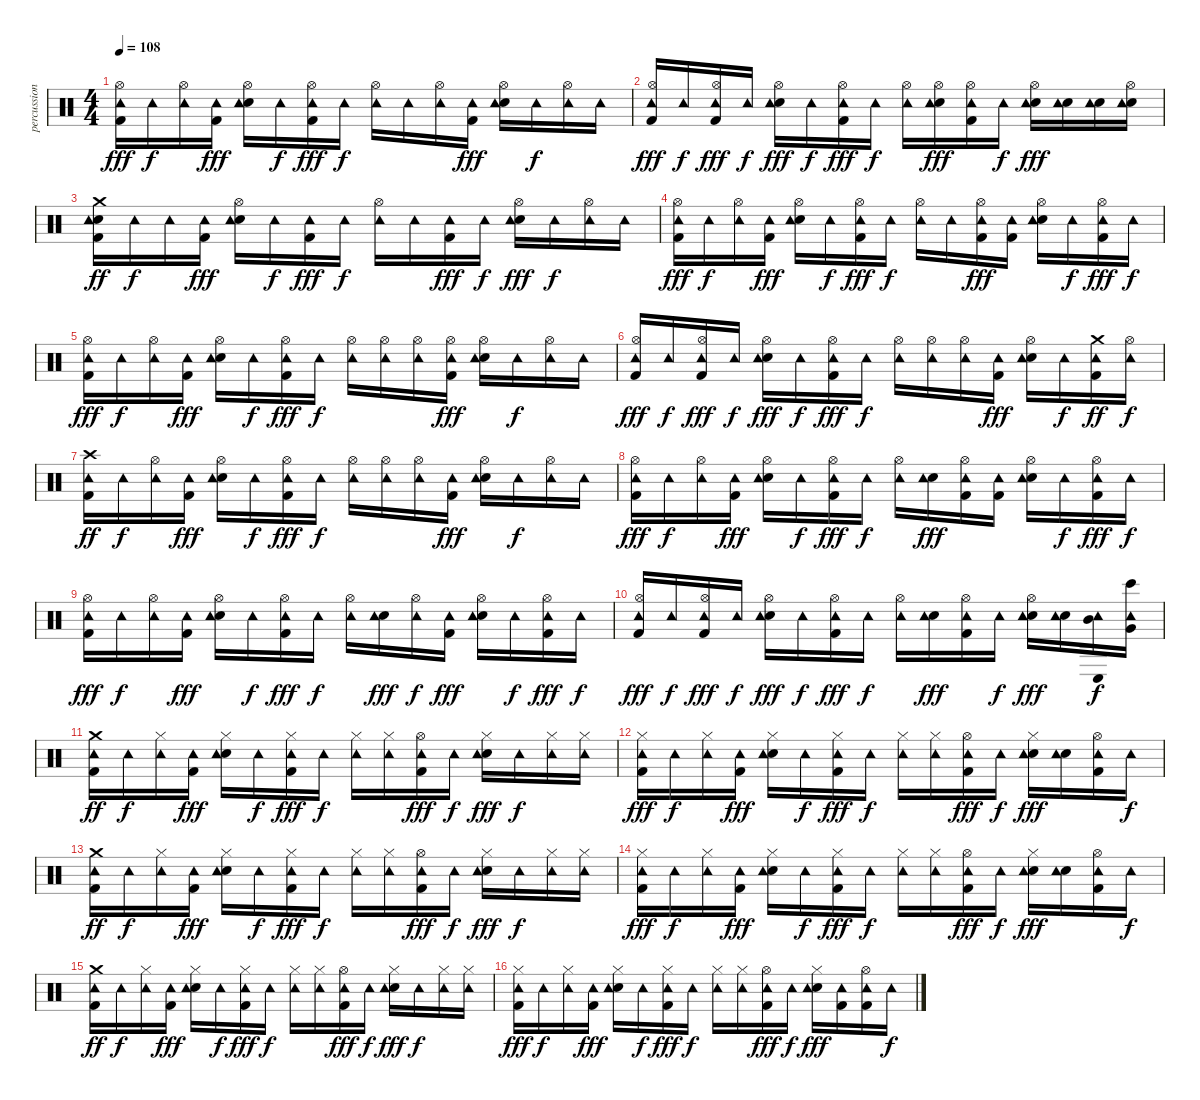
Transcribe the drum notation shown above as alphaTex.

\track ("percussion" "percussion") {instrument percussion}
\staff {score}
\articulation defaults
\ts (4 4)
\tempo 108
\clef neutral
\ks c
("Kick (hit) 2" "Hi-Hat (open)" "Tambourine (hit)").16{dy fff} "Tambourine (hit)".16{dy f} ("Hi-Hat (open)" "Tambourine (hit)").16 ("Kick (hit) 2" "Tambourine (hit)").16{dy fff} ("Hi-Hat (open)" "Electric Snare (hit)" "Tambourine (hit)").16 "Tambourine (hit)".16{dy f} ("Hi-Hat (open)" "Kick (hit) 2" "Tambourine (hit)").16{dy fff} "Tambourine (hit)".16{dy f} ("Hi-Hat (open)" "Tambourine (hit)").16 "Tambourine (hit)".16 ("Hi-Hat (open)" "Tambourine (hit)").16 ("Kick (hit) 2" "Tambourine (hit)").16{dy fff} ("Hi-Hat (open)" "Electric Snare (hit)" "Tambourine (hit)").16 "Tambourine (hit)".16{dy f} ("Hi-Hat (open)" "Tambourine (hit)").16 "Tambourine (hit)".16 |
("Hi-Hat (open)" "Kick (hit) 2" "Tambourine (hit)").16{dy fff} "Tambourine (hit)".16{dy f} ("Kick (hit) 2" "Hi-Hat (open)" "Tambourine (hit)").16{dy fff} "Tambourine (hit)".16{dy f} ("Hi-Hat (open)" "Electric Snare (hit)" "Tambourine (hit)").16{dy fff} "Tambourine (hit)".16{dy f} ("Hi-Hat (open)" "Kick (hit) 2" "Tambourine (hit)").16{dy fff} "Tambourine (hit)".16{dy f} ("Hi-Hat (open)" "Tambourine (hit)").16 ("Electric Snare (hit)" "Hi-Hat (open)" "Tambourine (hit)").16{dy fff} ("Kick (hit) 2" "Hi-Hat (open)" "Tambourine (hit)").16 "Tambourine (hit)".16{dy f} ("Hi-Hat (open)" "Electric Snare (hit)" "Tambourine (hit)").16{dy fff} ("Electric Snare (hit)" "Tambourine (hit)").16 ("Electric Snare (hit)" "Tambourine (hit)").16 ("Electric Snare (hit)" "Hi-Hat (open)" "Tambourine (hit)").16 |
("Kick (hit) 2" "Electric Snare (hit)" "Crash medium (hit)" "Tambourine (hit)").16{dy ff} "Tambourine (hit)".16{dy f} "Tambourine (hit)".16 ("Kick (hit) 2" "Tambourine (hit)").16{dy fff} ("Hi-Hat (open)" "Electric Snare (hit)" "Tambourine (hit)").16 "Tambourine (hit)".16{dy f} ("Kick (hit) 2" "Tambourine (hit)").16{dy fff} "Tambourine (hit)".16{dy f} ("Hi-Hat (open)" "Tambourine (hit)").16 "Tambourine (hit)".16 ("Kick (hit) 2" "Tambourine (hit)").16{dy fff} "Tambourine (hit)".16{dy f} ("Hi-Hat (open)" "Electric Snare (hit)" "Tambourine (hit)").16{dy fff} "Tambourine (hit)".16{dy f} ("Hi-Hat (open)" "Tambourine (hit)").16 "Tambourine (hit)".16 |
("Hi-Hat (open)" "Kick (hit) 2" "Tambourine (hit)").16{dy fff} "Tambourine (hit)".16{dy f} ("Hi-Hat (open)" "Tambourine (hit)").16 ("Kick (hit) 2" "Tambourine (hit)").16{dy fff} ("Hi-Hat (open)" "Electric Snare (hit)" "Tambourine (hit)").16 "Tambourine (hit)".16{dy f} ("Hi-Hat (open)" "Kick (hit) 2" "Tambourine (hit)").16{dy fff} "Tambourine (hit)".16{dy f} ("Hi-Hat (open)" "Tambourine (hit)").16 "Tambourine (hit)".16 ("Kick (hit) 2" "Hi-Hat (open)" "Tambourine (hit)").16{dy fff} ("Kick (hit) 2" "Tambourine (hit)").16 ("Hi-Hat (open)" "Electric Snare (hit)" "Tambourine (hit)").16 "Tambourine (hit)".16{dy f} ("Kick (hit) 2" "Hi-Hat (open)" "Tambourine (hit)").16{dy fff} "Tambourine (hit)".16{dy f} |
("Kick (hit) 2" "Hi-Hat (open)" "Tambourine (hit)").16{dy fff} "Tambourine (hit)".16{dy f} ("Hi-Hat (open)" "Tambourine (hit)").16 ("Kick (hit) 2" "Tambourine (hit)").16{dy fff} ("Hi-Hat (open)" "Electric Snare (hit)" "Tambourine (hit)").16 "Tambourine (hit)".16{dy f} ("Hi-Hat (open)" "Kick (hit) 2" "Tambourine (hit)").16{dy fff} "Tambourine (hit)".16{dy f} ("Hi-Hat (open)" "Tambourine (hit)").16 ("Hi-Hat (open)" "Tambourine (hit)").16 ("Hi-Hat (open)" "Tambourine (hit)").16 ("Kick (hit) 2" "Hi-Hat (open)" "Tambourine (hit)").16{dy fff} ("Hi-Hat (open)" "Electric Snare (hit)" "Tambourine (hit)").16 "Tambourine (hit)".16{dy f} ("Hi-Hat (open)" "Tambourine (hit)").16 "Tambourine (hit)".16 |
("Hi-Hat (open)" "Kick (hit) 2" "Tambourine (hit)").16{dy fff} "Tambourine (hit)".16{dy f} ("Kick (hit) 2" "Hi-Hat (open)" "Tambourine (hit)").16{dy fff} "Tambourine (hit)".16{dy f} ("Hi-Hat (open)" "Electric Snare (hit)" "Tambourine (hit)").16{dy fff} "Tambourine (hit)".16{dy f} ("Hi-Hat (open)" "Kick (hit) 2" "Tambourine (hit)").16{dy fff} "Tambourine (hit)".16{dy f} ("Hi-Hat (open)" "Tambourine (hit)").16 ("Hi-Hat (open)" "Tambourine (hit)").16 ("Hi-Hat (open)" "Tambourine (hit)").16 ("Kick (hit) 2" "Tambourine (hit)").16{dy fff} ("Hi-Hat (open)" "Electric Snare (hit)" "Tambourine (hit)").16 "Tambourine (hit)".16{dy f} ("Kick (hit) 2" "Crash medium (hit)" "Tambourine (hit)").16{dy ff} ("Hi-Hat (open)" "Tambourine (hit)").16{dy f} |
("Kick (hit) 2" "Crash high (hit)" "Tambourine (hit)").16{dy ff} "Tambourine (hit)".16{dy f} ("Hi-Hat (open)" "Tambourine (hit)").16 ("Kick (hit) 2" "Tambourine (hit)").16{dy fff} ("Hi-Hat (open)" "Electric Snare (hit)" "Tambourine (hit)").16 "Tambourine (hit)".16{dy f} ("Hi-Hat (open)" "Kick (hit) 2" "Tambourine (hit)").16{dy fff} "Tambourine (hit)".16{dy f} ("Hi-Hat (open)" "Tambourine (hit)").16 ("Hi-Hat (open)" "Tambourine (hit)").16 ("Hi-Hat (open)" "Tambourine (hit)").16 ("Kick (hit) 2" "Tambourine (hit)").16{dy fff} ("Hi-Hat (open)" "Electric Snare (hit)" "Tambourine (hit)").16 "Tambourine (hit)".16{dy f} ("Hi-Hat (open)" "Tambourine (hit)").16 "Tambourine (hit)".16 |
("Hi-Hat (open)" "Kick (hit) 2" "Tambourine (hit)").16{dy fff} "Tambourine (hit)".16{dy f} ("Hi-Hat (open)" "Tambourine (hit)").16 ("Kick (hit) 2" "Tambourine (hit)").16{dy fff} ("Hi-Hat (open)" "Electric Snare (hit)" "Tambourine (hit)").16 "Tambourine (hit)".16{dy f} ("Hi-Hat (open)" "Kick (hit) 2" "Tambourine (hit)").16{dy fff} "Tambourine (hit)".16{dy f} ("Hi-Hat (open)" "Tambourine (hit)").16 ("Electric Snare (hit)" "Tambourine (hit)").16{dy fff} ("Kick (hit) 2" "Hi-Hat (open)" "Tambourine (hit)").16 ("Kick (hit) 2" "Tambourine (hit)").16 ("Hi-Hat (open)" "Electric Snare (hit)" "Tambourine (hit)").16 "Tambourine (hit)".16{dy f} ("Kick (hit) 2" "Hi-Hat (open)" "Tambourine (hit)").16{dy fff} "Tambourine (hit)".16{dy f} |
("Kick (hit) 2" "Hi-Hat (open)" "Tambourine (hit)").16{dy fff} "Tambourine (hit)".16{dy f} ("Hi-Hat (open)" "Tambourine (hit)").16 ("Kick (hit) 2" "Tambourine (hit)").16{dy fff} ("Hi-Hat (open)" "Electric Snare (hit)" "Tambourine (hit)").16 "Tambourine (hit)".16{dy f} ("Hi-Hat (open)" "Kick (hit) 2" "Tambourine (hit)").16{dy fff} "Tambourine (hit)".16{dy f} ("Hi-Hat (open)" "Tambourine (hit)").16 ("Electric Snare (hit)" "Tambourine (hit)").16{dy fff} ("Hi-Hat (open)" "Tambourine (hit)").16{dy f} ("Kick (hit) 2" "Tambourine (hit)").16{dy fff} ("Hi-Hat (open)" "Electric Snare (hit)" "Tambourine (hit)").16 "Tambourine (hit)".16{dy f} ("Kick (hit) 2" "Hi-Hat (open)" "Tambourine (hit)").16{dy fff} "Tambourine (hit)".16{dy f} |
("Hi-Hat (open)" "Kick (hit) 2" "Tambourine (hit)").16{dy fff} "Tambourine (hit)".16{dy f} ("Kick (hit) 2" "Hi-Hat (open)" "Tambourine (hit)").16{dy fff} "Tambourine (hit)".16{dy f} ("Hi-Hat (open)" "Electric Snare (hit)" "Tambourine (hit)").16{dy fff} "Tambourine (hit)".16{dy f} ("Hi-Hat (open)" "Kick (hit) 2" "Tambourine (hit)").16{dy fff} "Tambourine (hit)".16{dy f} ("Hi-Hat (open)" "Tambourine (hit)").16 ("Electric Snare (hit)" "Tambourine (hit)").16{dy fff} ("Kick (hit) 2" "Hi-Hat (open)" "Tambourine (hit)").16 "Tambourine (hit)".16{dy f} ("Hi-Hat (open)" "Electric Snare (hit)" "Tambourine (hit)").16{dy fff} ("Electric Snare (hit)" "Tambourine (hit)").16 ("Tambourine (hit)" "Conga low (hit)" "Mid Tom (hit)").16{dy f} ("Tambourine (hit)" "Bongo High (hit)" "Very Low Tom (hit)").16 |
("Kick (hit) 2" "Crash medium (hit)" "Tambourine (hit)").16{dy ff} "Tambourine (hit)".16{dy f} ("Hi-Hat (closed)" "Tambourine (hit)").16 ("Kick (hit) 2" "Tambourine (hit)").16{dy fff} ("Hi-Hat (closed)" "Electric Snare (hit)" "Tambourine (hit)").16 "Tambourine (hit)".16{dy f} ("Hi-Hat (closed)" "Kick (hit) 2" "Tambourine (hit)").16{dy fff} "Tambourine (hit)".16{dy f} ("Hi-Hat (closed)" "Tambourine (hit)").16 ("Hi-Hat (closed)" "Tambourine (hit)").16 ("Kick (hit) 2" "Hi-Hat (open)" "Tambourine (hit)").16{dy fff} "Tambourine (hit)".16{dy f} ("Hi-Hat (closed)" "Electric Snare (hit)" "Tambourine (hit)").16{dy fff} "Tambourine (hit)".16{dy f} ("Hi-Hat (closed)" "Tambourine (hit)").16 ("Hi-Hat (closed)" "Tambourine (hit)").16 |
("Hi-Hat (closed)" "Kick (hit) 2" "Tambourine (hit)").16{dy fff} "Tambourine (hit)".16{dy f} ("Hi-Hat (closed)" "Tambourine (hit)").16 ("Kick (hit) 2" "Tambourine (hit)").16{dy fff} ("Hi-Hat (closed)" "Electric Snare (hit)" "Tambourine (hit)").16 "Tambourine (hit)".16{dy f} ("Hi-Hat (closed)" "Kick (hit) 2" "Tambourine (hit)").16{dy fff} "Tambourine (hit)".16{dy f} ("Hi-Hat (closed)" "Tambourine (hit)").16 ("Hi-Hat (closed)" "Tambourine (hit)").16 ("Kick (hit) 2" "Hi-Hat (open)" "Tambourine (hit)").16{dy fff} "Tambourine (hit)".16{dy f} ("Hi-Hat (closed)" "Electric Snare (hit)" "Tambourine (hit)").16{dy fff} ("Electric Snare (hit)" "Tambourine (hit)").16 ("Kick (hit) 2" "Hi-Hat (open)" "Tambourine (hit)").16 "Tambourine (hit)".16{dy f} |
("Kick (hit) 2" "Crash medium (hit)" "Tambourine (hit)").16{dy ff} "Tambourine (hit)".16{dy f} ("Hi-Hat (closed)" "Tambourine (hit)").16 ("Kick (hit) 2" "Tambourine (hit)").16{dy fff} ("Hi-Hat (closed)" "Electric Snare (hit)" "Tambourine (hit)").16 "Tambourine (hit)".16{dy f} ("Hi-Hat (closed)" "Kick (hit) 2" "Tambourine (hit)").16{dy fff} "Tambourine (hit)".16{dy f} ("Hi-Hat (closed)" "Tambourine (hit)").16 ("Hi-Hat (closed)" "Tambourine (hit)").16 ("Kick (hit) 2" "Hi-Hat (open)" "Tambourine (hit)").16{dy fff} "Tambourine (hit)".16{dy f} ("Hi-Hat (closed)" "Electric Snare (hit)" "Tambourine (hit)").16{dy fff} "Tambourine (hit)".16{dy f} ("Hi-Hat (closed)" "Tambourine (hit)").16 ("Hi-Hat (closed)" "Tambourine (hit)").16 |
("Kick (hit) 2" "Hi-Hat (closed)" "Tambourine (hit)").16{dy fff} "Tambourine (hit)".16{dy f} ("Hi-Hat (closed)" "Tambourine (hit)").16 ("Kick (hit) 2" "Tambourine (hit)").16{dy fff} ("Hi-Hat (closed)" "Electric Snare (hit)" "Tambourine (hit)").16 "Tambourine (hit)".16{dy f} ("Hi-Hat (closed)" "Kick (hit) 2" "Tambourine (hit)").16{dy fff} "Tambourine (hit)".16{dy f} ("Hi-Hat (closed)" "Tambourine (hit)").16 ("Hi-Hat (closed)" "Tambourine (hit)").16 ("Kick (hit) 2" "Hi-Hat (open)" "Tambourine (hit)").16{dy fff} "Tambourine (hit)".16{dy f} ("Hi-Hat (closed)" "Electric Snare (hit)" "Tambourine (hit)").16{dy fff} ("Electric Snare (hit)" "Tambourine (hit)").16 ("Kick (hit) 2" "Hi-Hat (open)" "Tambourine (hit)").16 "Tambourine (hit)".16{dy f} |
("Kick (hit) 2" "Crash medium (hit)" "Tambourine (hit)").16{dy ff} "Tambourine (hit)".16{dy f} ("Hi-Hat (closed)" "Tambourine (hit)").16 ("Kick (hit) 2" "Tambourine (hit)").16{dy fff} ("Hi-Hat (closed)" "Electric Snare (hit)" "Tambourine (hit)").16 "Tambourine (hit)".16{dy f} ("Hi-Hat (closed)" "Kick (hit) 2" "Tambourine (hit)").16{dy fff} "Tambourine (hit)".16{dy f} ("Hi-Hat (closed)" "Tambourine (hit)").16 ("Hi-Hat (closed)" "Tambourine (hit)").16 ("Kick (hit) 2" "Hi-Hat (open)" "Tambourine (hit)").16{dy fff} "Tambourine (hit)".16{dy f} ("Hi-Hat (closed)" "Electric Snare (hit)" "Tambourine (hit)").16{dy fff} "Tambourine (hit)".16{dy f} ("Hi-Hat (closed)" "Tambourine (hit)").16 ("Hi-Hat (closed)" "Tambourine (hit)").16 |
("Hi-Hat (closed)" "Kick (hit) 2" "Tambourine (hit)").16{dy fff} "Tambourine (hit)".16{dy f} ("Hi-Hat (closed)" "Tambourine (hit)").16 ("Kick (hit) 2" "Tambourine (hit)").16{dy fff} ("Hi-Hat (closed)" "Electric Snare (hit)" "Tambourine (hit)").16 "Tambourine (hit)".16{dy f} ("Hi-Hat (closed)" "Kick (hit) 2" "Tambourine (hit)").16{dy fff} "Tambourine (hit)".16{dy f} ("Hi-Hat (closed)" "Tambourine (hit)").16 ("Hi-Hat (closed)" "Tambourine (hit)").16 ("Kick (hit) 2" "Hi-Hat (open)" "Tambourine (hit)").16{dy fff} "Tambourine (hit)".16{dy f} ("Hi-Hat (closed)" "Electric Snare (hit)" "Tambourine (hit)").16{dy fff} ("Kick (hit) 2" "Tambourine (hit)").16 ("Kick (hit) 2" "Hi-Hat (open)" "Tambourine (hit)").16 "Tambourine (hit)".16{dy f}
